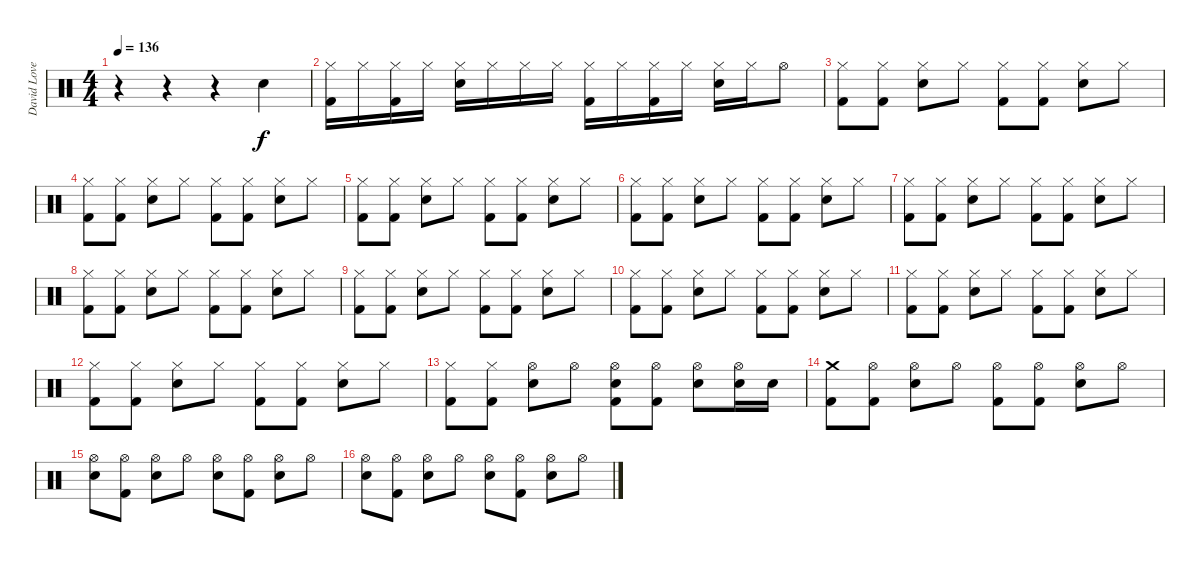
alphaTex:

\track ("David Lovering (Drums)" "David Love") {instrument percussion}
\staff {score}
\articulation defaults
\ts (4 4)
\tempo 136
\clef neutral
\ks c
r.4{dy f} r.4 r.4 "Electric Snare (hit)".4 |
("Hi-Hat (closed)" "Kick (hit) 2").16 "Hi-Hat (closed)".16 ("Hi-Hat (closed)" "Kick (hit) 2").16 "Hi-Hat (closed)".16 ("Hi-Hat (closed)" "Electric Snare (hit)").16 "Hi-Hat (closed)".16 "Hi-Hat (closed)".16 "Hi-Hat (closed)".16 ("Hi-Hat (closed)" "Kick (hit) 2").16 "Hi-Hat (closed)".16 ("Hi-Hat (closed)" "Kick (hit) 2").16 "Hi-Hat (closed)".16 ("Hi-Hat (closed)" "Electric Snare (hit)").16 "Hi-Hat (closed)".16 "Hi-Hat (open)".8 |
("Hi-Hat (closed)" "Kick (hit) 2").8 ("Hi-Hat (closed)" "Kick (hit) 2").8 ("Hi-Hat (closed)" "Electric Snare (hit)").8 "Hi-Hat (closed)".8 ("Hi-Hat (closed)" "Kick (hit) 2").8 ("Hi-Hat (closed)" "Kick (hit) 2").8 ("Hi-Hat (closed)" "Electric Snare (hit)").8 "Hi-Hat (closed)".8 |
("Hi-Hat (closed)" "Kick (hit) 2").8 ("Hi-Hat (closed)" "Kick (hit) 2").8 ("Hi-Hat (closed)" "Electric Snare (hit)").8 "Hi-Hat (closed)".8 ("Hi-Hat (closed)" "Kick (hit) 2").8 ("Hi-Hat (closed)" "Kick (hit) 2").8 ("Hi-Hat (closed)" "Electric Snare (hit)").8 "Hi-Hat (closed)".8 |
("Hi-Hat (closed)" "Kick (hit) 2").8 ("Hi-Hat (closed)" "Kick (hit) 2").8 ("Hi-Hat (closed)" "Electric Snare (hit)").8 "Hi-Hat (closed)".8 ("Hi-Hat (closed)" "Kick (hit) 2").8 ("Hi-Hat (closed)" "Kick (hit) 2").8 ("Hi-Hat (closed)" "Electric Snare (hit)").8 "Hi-Hat (closed)".8 |
("Hi-Hat (closed)" "Kick (hit) 2").8 ("Hi-Hat (closed)" "Kick (hit) 2").8 ("Hi-Hat (closed)" "Electric Snare (hit)").8 "Hi-Hat (closed)".8 ("Hi-Hat (closed)" "Kick (hit) 2").8 ("Hi-Hat (closed)" "Kick (hit) 2").8 ("Hi-Hat (closed)" "Electric Snare (hit)").8 "Hi-Hat (closed)".8 |
("Hi-Hat (closed)" "Kick (hit) 2").8 ("Hi-Hat (closed)" "Kick (hit) 2").8 ("Hi-Hat (closed)" "Electric Snare (hit)").8 "Hi-Hat (closed)".8 ("Hi-Hat (closed)" "Kick (hit) 2").8 ("Hi-Hat (closed)" "Kick (hit) 2").8 ("Hi-Hat (closed)" "Electric Snare (hit)").8 "Hi-Hat (closed)".8 |
("Hi-Hat (closed)" "Kick (hit) 2").8 ("Hi-Hat (closed)" "Kick (hit) 2").8 ("Hi-Hat (closed)" "Electric Snare (hit)").8 "Hi-Hat (closed)".8 ("Hi-Hat (closed)" "Kick (hit) 2").8 ("Hi-Hat (closed)" "Kick (hit) 2").8 ("Hi-Hat (closed)" "Electric Snare (hit)").8 "Hi-Hat (closed)".8 |
("Hi-Hat (closed)" "Kick (hit) 2").8 ("Hi-Hat (closed)" "Kick (hit) 2").8 ("Hi-Hat (closed)" "Electric Snare (hit)").8 "Hi-Hat (closed)".8 ("Hi-Hat (closed)" "Kick (hit) 2").8 ("Hi-Hat (closed)" "Kick (hit) 2").8 ("Hi-Hat (closed)" "Electric Snare (hit)").8 "Hi-Hat (closed)".8 |
("Hi-Hat (closed)" "Kick (hit) 2").8 ("Hi-Hat (closed)" "Kick (hit) 2").8 ("Hi-Hat (closed)" "Electric Snare (hit)").8 "Hi-Hat (closed)".8 ("Hi-Hat (closed)" "Kick (hit) 2").8 ("Hi-Hat (closed)" "Kick (hit) 2").8 ("Hi-Hat (closed)" "Electric Snare (hit)").8 "Hi-Hat (closed)".8 |
("Hi-Hat (closed)" "Kick (hit) 2").8 ("Hi-Hat (closed)" "Kick (hit) 2").8 ("Hi-Hat (closed)" "Electric Snare (hit)").8 "Hi-Hat (closed)".8 ("Hi-Hat (closed)" "Kick (hit) 2").8 ("Hi-Hat (closed)" "Kick (hit) 2").8 ("Hi-Hat (closed)" "Electric Snare (hit)").8 "Hi-Hat (closed)".8 |
("Hi-Hat (closed)" "Kick (hit) 2").8 ("Hi-Hat (closed)" "Kick (hit) 2").8 ("Hi-Hat (closed)" "Electric Snare (hit)").8 "Hi-Hat (closed)".8 ("Hi-Hat (closed)" "Kick (hit) 2").8 ("Hi-Hat (closed)" "Kick (hit) 2").8 ("Hi-Hat (closed)" "Electric Snare (hit)").8 "Hi-Hat (closed)".8 |
("Hi-Hat (closed)" "Kick (hit) 2").8 ("Hi-Hat (closed)" "Kick (hit) 2").8 ("Hi-Hat (open)" "Electric Snare (hit)").8 "Hi-Hat (open)".8 ("Hi-Hat (open)" "Electric Snare (hit)" "Kick (hit) 2").8 ("Hi-Hat (open)" "Kick (hit) 2").8 ("Hi-Hat (open)" "Electric Snare (hit)").8 ("Hi-Hat (open)" "Electric Snare (hit)").16 "Electric Snare (hit)".16 |
("Crash medium (hit)" "Kick (hit) 2").8 ("Hi-Hat (open)" "Kick (hit) 2").8 ("Hi-Hat (open)" "Electric Snare (hit)").8 "Hi-Hat (open)".8 ("Hi-Hat (open)" "Kick (hit) 2").8 ("Hi-Hat (open)" "Kick (hit) 2").8 ("Hi-Hat (open)" "Electric Snare (hit)").8 "Hi-Hat (open)".8 |
("Hi-Hat (open)" "Electric Snare (hit)").8 ("Hi-Hat (open)" "Kick (hit) 2").8 ("Hi-Hat (open)" "Electric Snare (hit)").8 "Hi-Hat (open)".8 ("Hi-Hat (open)" "Electric Snare (hit)").8 ("Hi-Hat (open)" "Kick (hit) 2").8 ("Hi-Hat (open)" "Electric Snare (hit)").8 "Hi-Hat (open)".8 |
("Hi-Hat (open)" "Electric Snare (hit)").8 ("Hi-Hat (open)" "Kick (hit) 2").8 ("Hi-Hat (open)" "Electric Snare (hit)").8 "Hi-Hat (open)".8 ("Hi-Hat (open)" "Electric Snare (hit)").8 ("Hi-Hat (open)" "Kick (hit) 2").8 ("Hi-Hat (open)" "Electric Snare (hit)").8 "Hi-Hat (open)".8
